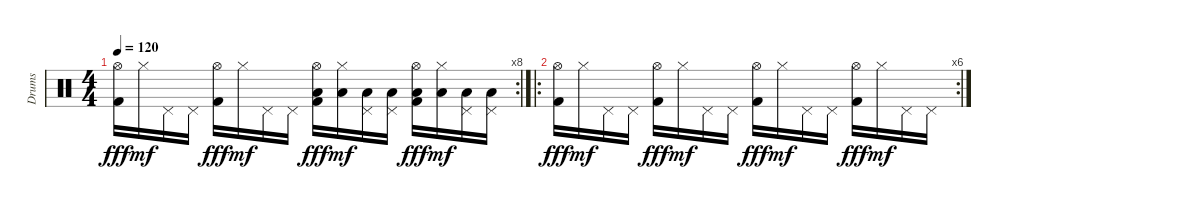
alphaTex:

\track ("Drums" "Drums") {instrument percussion}
\staff {score}
\articulation defaults
\rc 8
\ts (4 4)
\tempo 120
\clef neutral
\ks c
("Hi-Hat (open)" "Kick (hit) 2").16{dy fff} "Hi-Hat (closed)".16{dy mf} "Pedal Hi-Hat (hit)".16 "Pedal Hi-Hat (hit)".16 ("Hi-Hat (open)" "Kick (hit) 2").16{dy fff} "Hi-Hat (closed)".16{dy mf} "Pedal Hi-Hat (hit)".16 "Pedal Hi-Hat (hit)".16 ("Low Floor Tom (hit)" "Hi-Hat (open)" "Kick (hit) 2").16{dy fff} ("Low Floor Tom (hit)" "Hi-Hat (closed)").16{dy mf} ("Low Floor Tom (hit)" "Pedal Hi-Hat (hit)").16 ("Low Floor Tom (hit)" "Pedal Hi-Hat (hit)").16 ("Low Floor Tom (hit)" "Hi-Hat (open)" "Kick (hit) 2").16{dy fff} ("Low Floor Tom (hit)" "Hi-Hat (closed)").16{dy mf} ("Low Floor Tom (hit)" "Pedal Hi-Hat (hit)").16 ("Low Floor Tom (hit)" "Pedal Hi-Hat (hit)").16 |
\ro
\rc 6
("Hi-Hat (open)" "Kick (hit) 2").16{dy fff} "Hi-Hat (closed)".16{dy mf} "Pedal Hi-Hat (hit)".16 "Pedal Hi-Hat (hit)".16 ("Hi-Hat (open)" "Kick (hit) 2").16{dy fff} "Hi-Hat (closed)".16{dy mf} "Pedal Hi-Hat (hit)".16 "Pedal Hi-Hat (hit)".16 ("Hi-Hat (open)" "Kick (hit) 2").16{dy fff} "Hi-Hat (closed)".16{dy mf} "Pedal Hi-Hat (hit)".16 "Pedal Hi-Hat (hit)".16 ("Hi-Hat (open)" "Kick (hit) 2").16{dy fff} "Hi-Hat (closed)".16{dy mf} "Pedal Hi-Hat (hit)".16 "Pedal Hi-Hat (hit)".16
